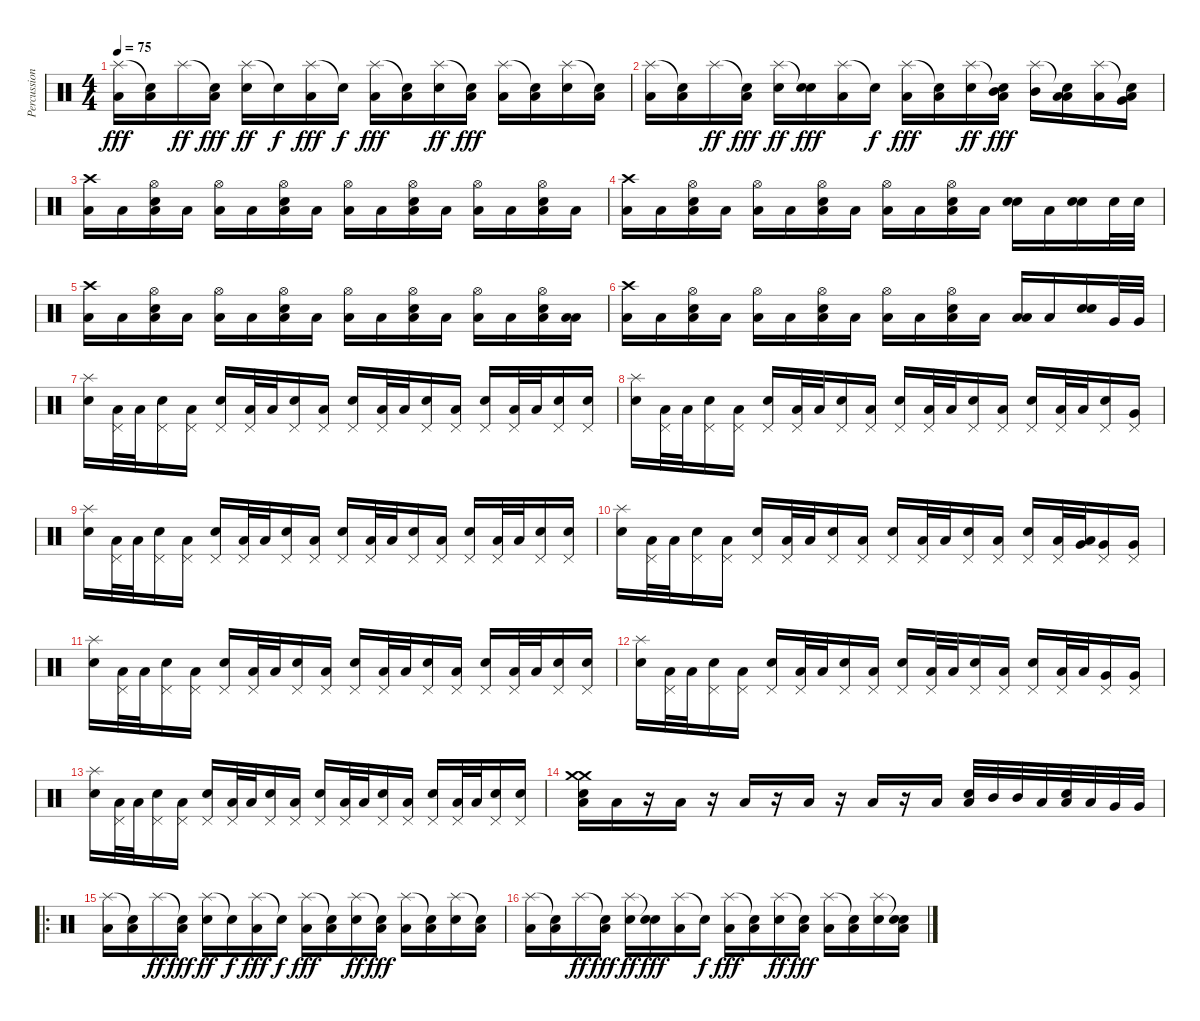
\track ("Percussion" "Percussion") {instrument percussion}
\staff {score}
\articulation defaults
\ts (4 4)
\tempo 75
\clef neutral
\ks c
("Splash (hit)" "Low Floor Tom (hit)").16{dy fff} ("Snare (hit)"{t} "Low Floor Tom (hit)").16 "Splash (hit)".16{dy ff} ("Snare (hit)"{t} "Low Floor Tom (hit)").16{dy fff} ("Splash (hit)" "Snare (hit) 2").16{dy ff} "Snare (hit)"{t}.16{dy f} ("Splash (hit)" "Low Floor Tom (hit)").16{dy fff} "Snare (hit)"{t}.16{dy f} ("Splash (hit)" "Low Floor Tom (hit)").16{dy fff} ("Snare (hit)"{t} "Low Floor Tom (hit)").16 ("Splash (hit)" "Snare (hit) 2").16{dy ff} ("Snare (hit)"{t} "Low Floor Tom (hit)").16{dy fff} ("Splash (hit)" "Low Floor Tom (hit)").16 ("Snare (hit)"{t} "Low Floor Tom (hit)").16 ("Splash (hit)" "Snare (hit) 2").16 ("Snare (hit)"{t} "Low Floor Tom (hit)").16 |
("Splash (hit)" "Low Floor Tom (hit)").16 ("Snare (hit)"{t} "Low Floor Tom (hit)").16 "Splash (hit)".16{dy ff} ("Snare (hit)"{t} "Low Floor Tom (hit)").16{dy fff} ("Splash (hit)" "Snare (hit) 2").16{dy ff} ("Snare (hit)"{t} "Snare (hit) 2").16{dy fff} ("Splash (hit)" "Low Floor Tom (hit)").16 "Snare (hit)"{t}.16{dy f} ("Splash (hit)" "Low Floor Tom (hit)").16{dy fff} ("Snare (hit)"{t} "Low Floor Tom (hit)").16 ("Splash (hit)" "Snare (hit) 2").16{dy ff} ("Snare (hit)"{t} "Mid Tom (hit)" "Low Floor Tom (hit)").16{dy fff} ("Splash (hit)" "Mid Tom (hit)").16 ("Snare (hit)"{t} "Low Tom (hit)" "Low Floor Tom (hit)").16 ("Splash (hit)" "Low Tom (hit)").16 ("Snare (hit)"{t} "Very Low Tom (hit)" "Low Floor Tom (hit)").16 |
("Crash high (hit)" "Low Floor Tom (hit)").16 "Low Floor Tom (hit)".16 ("Hi-Hat (open)" "Snare (hit) 2" "Low Floor Tom (hit)").16 "Low Floor Tom (hit)".16 ("Hi-Hat (open)" "Low Floor Tom (hit)").16 "Low Floor Tom (hit)".16 ("Hi-Hat (open)" "Snare (hit) 2" "Low Floor Tom (hit)").16 "Low Floor Tom (hit)".16 ("Hi-Hat (open)" "Low Floor Tom (hit)").16 "Low Floor Tom (hit)".16 ("Hi-Hat (open)" "Snare (hit) 2" "Low Floor Tom (hit)").16 "Low Floor Tom (hit)".16 ("Hi-Hat (open)" "Low Floor Tom (hit)").16 "Low Floor Tom (hit)".16 ("Hi-Hat (open)" "Snare (hit) 2" "Low Floor Tom (hit)").16 "Low Floor Tom (hit)".16 |
("Crash high (hit)" "Low Floor Tom (hit)").16 "Low Floor Tom (hit)".16 ("Hi-Hat (open)" "Snare (hit) 2" "Low Floor Tom (hit)").16 "Low Floor Tom (hit)".16 ("Hi-Hat (open)" "Low Floor Tom (hit)").16 "Low Floor Tom (hit)".16 ("Hi-Hat (open)" "Snare (hit) 2" "Low Floor Tom (hit)").16 "Low Floor Tom (hit)".16 ("Hi-Hat (open)" "Low Floor Tom (hit)").16 "Low Floor Tom (hit)".16 ("Hi-Hat (open)" "Snare (hit) 2" "Low Floor Tom (hit)").16 "Low Floor Tom (hit)".16 ("Snare (hit) 2" "Snare (hit) 2").16{bu 480} "Low Floor Tom (hit)".16 ("Snare (hit) 2" "Snare (hit) 2").16{bu 480} "Snare (hit) 2".32 "Snare (hit) 2".32 |
("Crash high (hit)" "Low Floor Tom (hit)").16 "Low Floor Tom (hit)".16 ("Hi-Hat (open)" "Snare (hit) 2" "Low Floor Tom (hit)").16 "Low Floor Tom (hit)".16 ("Hi-Hat (open)" "Low Floor Tom (hit)").16 "Low Floor Tom (hit)".16 ("Hi-Hat (open)" "Snare (hit) 2" "Low Floor Tom (hit)").16 "Low Floor Tom (hit)".16 ("Hi-Hat (open)" "Low Floor Tom (hit)").16 "Low Floor Tom (hit)".16 ("Hi-Hat (open)" "Snare (hit) 2" "Low Floor Tom (hit)").16 "Low Floor Tom (hit)".16 ("Hi-Hat (open)" "Low Floor Tom (hit)").16 "Low Floor Tom (hit)".16 ("Hi-Hat (open)" "Snare (hit) 2" "Low Floor Tom (hit)").16 ("Low Tom (hit)" "Low Floor Tom (hit)").16 |
("Crash high (hit)" "Low Floor Tom (hit)").16 "Low Floor Tom (hit)".16 ("Hi-Hat (open)" "Snare (hit) 2" "Low Floor Tom (hit)").16 "Low Floor Tom (hit)".16 ("Hi-Hat (open)" "Low Floor Tom (hit)").16 "Low Floor Tom (hit)".16 ("Hi-Hat (open)" "Snare (hit) 2" "Low Floor Tom (hit)").16 "Low Floor Tom (hit)".16 ("Hi-Hat (open)" "Low Floor Tom (hit)").16 "Low Floor Tom (hit)".16 ("Hi-Hat (open)" "Snare (hit) 2" "Low Floor Tom (hit)").16 "Low Floor Tom (hit)".16 ("Low Tom (hit)" "Low Tom (hit)").16{bu 480} "Low Floor Tom (hit)".16 ("Snare (hit) 2" "Snare (hit) 2").16{bu 480} "Very Low Tom (hit)".32 "Very Low Tom (hit)".32 |
("Splash (hit)" "Snare (hit) 2").16 ("Pedal Hi-Hat (hit)" "Low Floor Tom (hit)").32 "Low Floor Tom (hit)".32 ("Pedal Hi-Hat (hit)" "Snare (hit) 2").16 ("Pedal Hi-Hat (hit)" "Low Floor Tom (hit)").16 ("Pedal Hi-Hat (hit)" "Snare (hit) 2").16 ("Pedal Hi-Hat (hit)" "Low Floor Tom (hit)").32 "Low Floor Tom (hit)".32 ("Pedal Hi-Hat (hit)" "Snare (hit) 2").16 ("Pedal Hi-Hat (hit)" "Low Floor Tom (hit)").16 ("Pedal Hi-Hat (hit)" "Snare (hit) 2").16 ("Pedal Hi-Hat (hit)" "Low Floor Tom (hit)").32 "Low Floor Tom (hit)".32 ("Pedal Hi-Hat (hit)" "Snare (hit) 2").16 ("Pedal Hi-Hat (hit)" "Low Floor Tom (hit)").16 ("Pedal Hi-Hat (hit)" "Snare (hit) 2").16 ("Pedal Hi-Hat (hit)" "Low Floor Tom (hit)").32 "Low Floor Tom (hit)".32 ("Pedal Hi-Hat (hit)" "Snare (hit) 2").16 ("Pedal Hi-Hat (hit)" "Snare (hit) 2").16 |
("Splash (hit)" "Snare (hit) 2").16 ("Pedal Hi-Hat (hit)" "Low Floor Tom (hit)").32 "Low Floor Tom (hit)".32 ("Pedal Hi-Hat (hit)" "Snare (hit) 2").16 ("Pedal Hi-Hat (hit)" "Low Floor Tom (hit)").16 ("Pedal Hi-Hat (hit)" "Snare (hit) 2").16 ("Pedal Hi-Hat (hit)" "Low Floor Tom (hit)").32 "Low Floor Tom (hit)".32 ("Pedal Hi-Hat (hit)" "Snare (hit) 2").16 ("Pedal Hi-Hat (hit)" "Low Floor Tom (hit)").16 ("Pedal Hi-Hat (hit)" "Snare (hit) 2").16 ("Pedal Hi-Hat (hit)" "Low Floor Tom (hit)").32 "Low Floor Tom (hit)".32 ("Pedal Hi-Hat (hit)" "Snare (hit) 2").16 ("Pedal Hi-Hat (hit)" "Low Floor Tom (hit)").16 ("Pedal Hi-Hat (hit)" "Snare (hit) 2").16 ("Pedal Hi-Hat (hit)" "Low Tom (hit)").32 "Low Tom (hit)".32 ("Pedal Hi-Hat (hit)" "Snare (hit) 2").16 ("Pedal Hi-Hat (hit)" "Very Low Tom (hit)").16 |
("Splash (hit)" "Snare (hit) 2").16 ("Pedal Hi-Hat (hit)" "Low Floor Tom (hit)").32 "Low Floor Tom (hit)".32 ("Pedal Hi-Hat (hit)" "Snare (hit) 2").16 ("Pedal Hi-Hat (hit)" "Low Floor Tom (hit)").16 ("Pedal Hi-Hat (hit)" "Snare (hit) 2").16 ("Pedal Hi-Hat (hit)" "Low Floor Tom (hit)").32 "Low Floor Tom (hit)".32 ("Pedal Hi-Hat (hit)" "Snare (hit) 2").16 ("Pedal Hi-Hat (hit)" "Low Floor Tom (hit)").16 ("Pedal Hi-Hat (hit)" "Snare (hit) 2").16 ("Pedal Hi-Hat (hit)" "Low Floor Tom (hit)").32 "Low Floor Tom (hit)".32 ("Pedal Hi-Hat (hit)" "Snare (hit) 2").16 ("Pedal Hi-Hat (hit)" "Low Floor Tom (hit)").16 ("Pedal Hi-Hat (hit)" "Snare (hit) 2").16 ("Pedal Hi-Hat (hit)" "Low Floor Tom (hit)").32 "Low Floor Tom (hit)".32 ("Pedal Hi-Hat (hit)" "Snare (hit) 2").16 ("Pedal Hi-Hat (hit)" "Snare (hit) 2").16 |
("Splash (hit)" "Snare (hit) 2").16 ("Pedal Hi-Hat (hit)" "Low Floor Tom (hit)").32 "Low Floor Tom (hit)".32 ("Pedal Hi-Hat (hit)" "Snare (hit) 2").16 ("Pedal Hi-Hat (hit)" "Low Floor Tom (hit)").16 ("Pedal Hi-Hat (hit)" "Snare (hit) 2").16 ("Pedal Hi-Hat (hit)" "Low Floor Tom (hit)").32 "Low Floor Tom (hit)".32 ("Pedal Hi-Hat (hit)" "Snare (hit) 2").16 ("Pedal Hi-Hat (hit)" "Low Floor Tom (hit)").16 ("Pedal Hi-Hat (hit)" "Snare (hit) 2").16 ("Pedal Hi-Hat (hit)" "Low Floor Tom (hit)").32 "Low Floor Tom (hit)".32 ("Pedal Hi-Hat (hit)" "Snare (hit) 2").16 ("Pedal Hi-Hat (hit)" "Low Floor Tom (hit)").16 ("Pedal Hi-Hat (hit)" "Snare (hit) 2").16 ("Pedal Hi-Hat (hit)" "Low Floor Tom (hit)").32 ("Very Low Tom (hit)" "Low Floor Tom (hit)").32 ("Pedal Hi-Hat (hit)" "Very Low Tom (hit)").16 ("Pedal Hi-Hat (hit)" "Very Low Tom (hit)").16 |
("Splash (hit)" "Snare (hit) 2").16 ("Pedal Hi-Hat (hit)" "Low Floor Tom (hit)").32 "Low Floor Tom (hit)".32 ("Pedal Hi-Hat (hit)" "Snare (hit) 2").16 ("Pedal Hi-Hat (hit)" "Low Floor Tom (hit)").16 ("Pedal Hi-Hat (hit)" "Snare (hit) 2").16 ("Pedal Hi-Hat (hit)" "Low Floor Tom (hit)").32 "Low Floor Tom (hit)".32 ("Pedal Hi-Hat (hit)" "Snare (hit) 2").16 ("Pedal Hi-Hat (hit)" "Low Floor Tom (hit)").16 ("Pedal Hi-Hat (hit)" "Snare (hit) 2").16 ("Pedal Hi-Hat (hit)" "Low Floor Tom (hit)").32 "Low Floor Tom (hit)".32 ("Pedal Hi-Hat (hit)" "Snare (hit) 2").16 ("Pedal Hi-Hat (hit)" "Low Floor Tom (hit)").16 ("Pedal Hi-Hat (hit)" "Snare (hit) 2").16 ("Pedal Hi-Hat (hit)" "Low Floor Tom (hit)").32 "Low Floor Tom (hit)".32 ("Pedal Hi-Hat (hit)" "Snare (hit) 2").16 ("Pedal Hi-Hat (hit)" "Snare (hit) 2").16 |
("Splash (hit)" "Snare (hit) 2").16 ("Pedal Hi-Hat (hit)" "Low Floor Tom (hit)").32 "Low Floor Tom (hit)".32 ("Pedal Hi-Hat (hit)" "Snare (hit) 2").16 ("Pedal Hi-Hat (hit)" "Low Floor Tom (hit)").16 ("Pedal Hi-Hat (hit)" "Snare (hit) 2").16 ("Pedal Hi-Hat (hit)" "Low Floor Tom (hit)").32 "Low Floor Tom (hit)".32 ("Pedal Hi-Hat (hit)" "Snare (hit) 2").16 ("Pedal Hi-Hat (hit)" "Low Floor Tom (hit)").16 ("Pedal Hi-Hat (hit)" "Snare (hit) 2").16 ("Pedal Hi-Hat (hit)" "Low Floor Tom (hit)").32 "Low Floor Tom (hit)".32 ("Pedal Hi-Hat (hit)" "Snare (hit) 2").16 ("Pedal Hi-Hat (hit)" "Low Floor Tom (hit)").16 ("Pedal Hi-Hat (hit)" "Snare (hit) 2").16 ("Pedal Hi-Hat (hit)" "Low Floor Tom (hit)").32 "Low Floor Tom (hit)".32 ("Pedal Hi-Hat (hit)" "Very Low Tom (hit)").16 ("Pedal Hi-Hat (hit)" "Very Low Tom (hit)").16 |
("Splash (hit)" "Snare (hit) 2").16 ("Pedal Hi-Hat (hit)" "Low Floor Tom (hit)").32 "Low Floor Tom (hit)".32 ("Pedal Hi-Hat (hit)" "Snare (hit) 2").16 ("Pedal Hi-Hat (hit)" "Low Floor Tom (hit)").16 ("Pedal Hi-Hat (hit)" "Snare (hit) 2").16 ("Pedal Hi-Hat (hit)" "Low Floor Tom (hit)").32 "Low Floor Tom (hit)".32 ("Pedal Hi-Hat (hit)" "Snare (hit) 2").16 ("Pedal Hi-Hat (hit)" "Low Floor Tom (hit)").16 ("Pedal Hi-Hat (hit)" "Snare (hit) 2").16 ("Pedal Hi-Hat (hit)" "Low Floor Tom (hit)").32 "Low Floor Tom (hit)".32 ("Pedal Hi-Hat (hit)" "Snare (hit) 2").16 ("Pedal Hi-Hat (hit)" "Low Floor Tom (hit)").16 ("Pedal Hi-Hat (hit)" "Snare (hit) 2").16 ("Pedal Hi-Hat (hit)" "Low Floor Tom (hit)").32 "Low Floor Tom (hit)".32 ("Pedal Hi-Hat (hit)" "Snare (hit) 2").16 ("Pedal Hi-Hat (hit)" "Snare (hit) 2").16 |
("Crash medium (hit)" "Crash medium (hit)" "Low Floor Tom (hit)" "Snare (hit) 2").16 "Low Floor Tom (hit)".16 r.16 "Low Floor Tom (hit)".16 r.16 "Low Floor Tom (hit)".16 r.16 "Low Floor Tom (hit)".16 r.16 "Low Floor Tom (hit)".16 r.16 "Low Floor Tom (hit)".16 ("Snare (hit) 2" "Low Floor Tom (hit)").32 "Mid Tom (hit)".32 "Mid Tom (hit)".32 "Low Floor Tom (hit)".32 ("Snare (hit) 2" "Low Tom (hit)").32 "Low Floor Tom (hit)".32 "Very Low Tom (hit)".32 "Very Low Tom (hit)".32 |
\ro
("Splash (hit)" "Low Floor Tom (hit)").16 ("Snare (hit)"{t} "Low Floor Tom (hit)").16 "Splash (hit)".16{dy ff} ("Snare (hit)"{t} "Low Floor Tom (hit)").16{dy fff} ("Splash (hit)" "Snare (hit) 2").16{dy ff} "Snare (hit)"{t}.16{dy f} ("Splash (hit)" "Low Floor Tom (hit)").16{dy fff} "Snare (hit)"{t}.16{dy f} ("Splash (hit)" "Low Floor Tom (hit)").16{dy fff} ("Snare (hit)"{t} "Low Floor Tom (hit)").16 ("Splash (hit)" "Snare (hit) 2").16{dy ff} ("Snare (hit)"{t} "Low Floor Tom (hit)").16{dy fff} ("Splash (hit)" "Low Floor Tom (hit)").16 ("Snare (hit)"{t} "Low Floor Tom (hit)").16 ("Splash (hit)" "Snare (hit) 2").16 ("Snare (hit)"{t} "Low Floor Tom (hit)").16 |
("Splash (hit)" "Low Floor Tom (hit)").16 ("Snare (hit)"{t} "Low Floor Tom (hit)").16 "Splash (hit)".16{dy ff} ("Snare (hit)"{t} "Low Floor Tom (hit)").16{dy fff} ("Splash (hit)" "Snare (hit) 2").16{dy ff} ("Snare (hit)"{t} "Snare (hit) 2").16{dy fff} ("Splash (hit)" "Low Floor Tom (hit)").16 "Snare (hit)"{t}.16{dy f} ("Splash (hit)" "Low Floor Tom (hit)").16{dy fff} ("Snare (hit)"{t} "Low Floor Tom (hit)").16 ("Splash (hit)" "Snare (hit) 2").16{dy ff} ("Snare (hit)"{t} "Low Floor Tom (hit)").16{dy fff} ("Splash (hit)" "Low Tom (hit)").16 ("Snare (hit)"{t} "Low Floor Tom (hit)").16 ("Splash (hit)" "Snare (hit) 2").16 ("Snare (hit)"{t} "Snare (hit) 2" "Low Floor Tom (hit)").16
